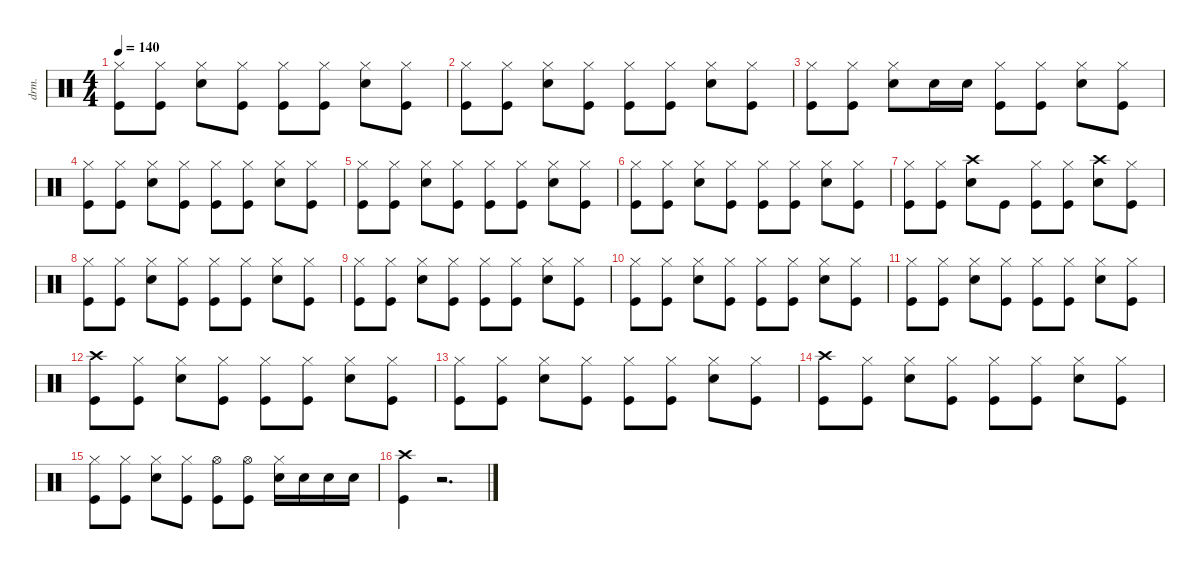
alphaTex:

\defaultSystemsLayout 4
\hideDynamics
\bracketExtendMode nobrackets
\otherSystemsTrackNameOrientation horizontal
\track ("Drums" "drm.") {instrument percussion}
\staff {score}
\articulation defaults
\ts (4 4)
\tempo 140
\clef neutral
\ks c
("Kick (hit)" "Hi-Hat (closed)").8{dy f} ("Kick (hit)" "Hi-Hat (closed)").8 ("Snare (hit) 2" "Hi-Hat (closed)").8 ("Kick (hit)" "Hi-Hat (closed)").8 ("Kick (hit)" "Hi-Hat (closed)").8 ("Kick (hit)" "Hi-Hat (closed)").8 ("Snare (hit) 2" "Hi-Hat (closed)").8 ("Kick (hit)" "Hi-Hat (closed)").8 |
("Kick (hit)" "Hi-Hat (closed)").8 ("Kick (hit)" "Hi-Hat (closed)").8 ("Snare (hit) 2" "Hi-Hat (closed)").8 ("Kick (hit)" "Hi-Hat (closed)").8 ("Kick (hit)" "Hi-Hat (closed)").8 ("Kick (hit)" "Hi-Hat (closed)").8 ("Snare (hit) 2" "Hi-Hat (closed)").8 ("Kick (hit)" "Hi-Hat (closed)").8 |
("Hi-Hat (closed)" "Kick (hit)").8 ("Hi-Hat (closed)" "Kick (hit)").8 ("Hi-Hat (closed)" "Snare (hit) 2").8 "Snare (hit) 2".16 "Snare (hit) 2".16 ("Hi-Hat (closed)" "Kick (hit)").8 ("Hi-Hat (closed)" "Kick (hit)").8 ("Hi-Hat (closed)" "Snare (hit) 2").8 ("Hi-Hat (closed)" "Kick (hit)").8 |
("Kick (hit)" "Hi-Hat (closed)").8 ("Kick (hit)" "Hi-Hat (closed)").8 ("Snare (hit) 2" "Hi-Hat (closed)").8 ("Kick (hit)" "Hi-Hat (closed)").8 ("Kick (hit)" "Hi-Hat (closed)").8 ("Kick (hit)" "Hi-Hat (closed)").8 ("Snare (hit) 2" "Hi-Hat (closed)").8 ("Kick (hit)" "Hi-Hat (closed)").8 |
("Kick (hit)" "Hi-Hat (closed)").8 ("Kick (hit)" "Hi-Hat (closed)").8 ("Snare (hit) 2" "Hi-Hat (closed)").8 ("Kick (hit)" "Hi-Hat (closed)").8 ("Kick (hit)" "Hi-Hat (closed)").8 ("Kick (hit)" "Hi-Hat (closed)").8 ("Snare (hit) 2" "Hi-Hat (closed)").8 ("Kick (hit)" "Hi-Hat (closed)").8 |
("Kick (hit)" "Hi-Hat (closed)").8 ("Kick (hit)" "Hi-Hat (closed)").8 ("Snare (hit) 2" "Hi-Hat (closed)").8 ("Kick (hit)" "Hi-Hat (closed)").8 ("Kick (hit)" "Hi-Hat (closed)").8 ("Kick (hit)" "Hi-Hat (closed)").8 ("Snare (hit) 2" "Hi-Hat (closed)").8 ("Kick (hit)" "Hi-Hat (closed)").8 |
("Hi-Hat (closed)" "Kick (hit)").8 ("Hi-Hat (closed)" "Kick (hit)").8 ("Crash high (hit)" "Snare (hit) 2").8 "Kick (hit)".8 ("Hi-Hat (closed)" "Kick (hit)").8 ("Hi-Hat (closed)" "Kick (hit)").8 ("Crash high (hit)" "Snare (hit) 2").8 ("Hi-Hat (closed)" "Kick (hit)").8 |
("Kick (hit)" "Hi-Hat (closed)").8 ("Kick (hit)" "Hi-Hat (closed)").8 ("Snare (hit) 2" "Hi-Hat (closed)").8 ("Kick (hit)" "Hi-Hat (closed)").8 ("Kick (hit)" "Hi-Hat (closed)").8 ("Kick (hit)" "Hi-Hat (closed)").8 ("Snare (hit) 2" "Hi-Hat (closed)").8 ("Kick (hit)" "Hi-Hat (closed)").8 |
("Kick (hit)" "Hi-Hat (closed)").8 ("Kick (hit)" "Hi-Hat (closed)").8 ("Snare (hit) 2" "Hi-Hat (closed)").8 ("Kick (hit)" "Hi-Hat (closed)").8 ("Kick (hit)" "Hi-Hat (closed)").8 ("Kick (hit)" "Hi-Hat (closed)").8 ("Snare (hit) 2" "Hi-Hat (closed)").8 ("Kick (hit)" "Hi-Hat (closed)").8 |
("Kick (hit)" "Hi-Hat (closed)").8 ("Kick (hit)" "Hi-Hat (closed)").8 ("Snare (hit) 2" "Hi-Hat (closed)").8 ("Kick (hit)" "Hi-Hat (closed)").8 ("Kick (hit)" "Hi-Hat (closed)").8 ("Kick (hit)" "Hi-Hat (closed)").8 ("Snare (hit) 2" "Hi-Hat (closed)").8 ("Kick (hit)" "Hi-Hat (closed)").8 |
("Kick (hit)" "Hi-Hat (closed)").8 ("Kick (hit)" "Hi-Hat (closed)").8 ("Snare (hit) 2" "Hi-Hat (closed)").8 ("Kick (hit)" "Hi-Hat (closed)").8 ("Kick (hit)" "Hi-Hat (closed)").8 ("Kick (hit)" "Hi-Hat (closed)").8 ("Snare (hit) 2" "Hi-Hat (closed)").8 ("Kick (hit)" "Hi-Hat (closed)").8 |
("Crash high (hit)" "Kick (hit)").8 ("Kick (hit)" "Hi-Hat (closed)").8 ("Snare (hit) 2" "Hi-Hat (closed)").8 ("Kick (hit)" "Hi-Hat (closed)").8 ("Kick (hit)" "Hi-Hat (closed)").8 ("Kick (hit)" "Hi-Hat (closed)").8 ("Snare (hit) 2" "Hi-Hat (closed)").8 ("Kick (hit)" "Hi-Hat (closed)").8 |
("Kick (hit)" "Hi-Hat (closed)").8 ("Kick (hit)" "Hi-Hat (closed)").8 ("Snare (hit) 2" "Hi-Hat (closed)").8 ("Kick (hit)" "Hi-Hat (closed)").8 ("Kick (hit)" "Hi-Hat (closed)").8 ("Kick (hit)" "Hi-Hat (closed)").8 ("Snare (hit) 2" "Hi-Hat (closed)").8 ("Kick (hit)" "Hi-Hat (closed)").8 |
("Crash high (hit)" "Kick (hit)").8 ("Kick (hit)" "Hi-Hat (closed)").8 ("Snare (hit) 2" "Hi-Hat (closed)").8 ("Kick (hit)" "Hi-Hat (closed)").8 ("Kick (hit)" "Hi-Hat (closed)").8 ("Kick (hit)" "Hi-Hat (closed)").8 ("Snare (hit) 2" "Hi-Hat (closed)").8 ("Kick (hit)" "Hi-Hat (closed)").8 |
("Hi-Hat (closed)" "Kick (hit)").8 ("Kick (hit)" "Hi-Hat (closed)").8 ("Snare (hit) 2" "Hi-Hat (closed)").8 ("Kick (hit)" "Hi-Hat (closed)").8 ("Hi-Hat (open)" "Kick (hit)").8 ("Hi-Hat (open)" "Kick (hit)").8 ("Hi-Hat (closed)" "Snare (hit) 2").16 "Snare (hit) 2".16 "Snare (hit) 2".16 "Snare (hit) 2".16 |
("Kick (hit)" "Crash high (hit)").4 r.2{d}
